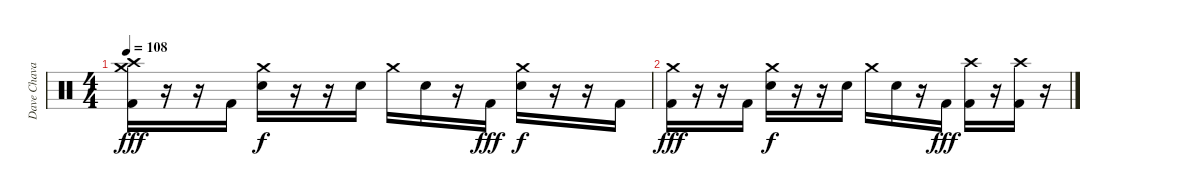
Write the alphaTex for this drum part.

\track ("Dave Chavarri [Drums]" "Dave Chava") {instrument percussion}
\staff {score}
\articulation defaults
\ts (4 4)
\tempo 108
\clef neutral
\ks c
("Crash medium (hit)" "Crash high (hit)" "Kick (hit) 2").16{dy fff} r.16 r.16 "Kick (hit) 2".16 ("Crash medium (hit)" "Electric Snare (hit)").16{dy f} r.16 r.16 "Electric Snare (hit)".16 "Crash medium (hit)".16 "Electric Snare (hit)".16 r.16 "Kick (hit) 2".16{dy fff} ("Crash medium (hit)" "Electric Snare (hit)").16{dy f} r.16 r.16 "Kick (hit) 2".16 |
("Crash medium (hit)" "Kick (hit) 2").16{dy fff} r.16 r.16 "Kick (hit) 2".16 ("Crash medium (hit)" "Electric Snare (hit)").16{dy f} r.16 r.16 "Electric Snare (hit)".16 "Crash medium (hit)".16 "Electric Snare (hit)".16 r.16 "Kick (hit) 2".16{dy fff} ("Crash high (hit)" "Kick (hit) 2").16 r.16 ("Crash high (hit)" "Kick (hit) 2").16 r.16
